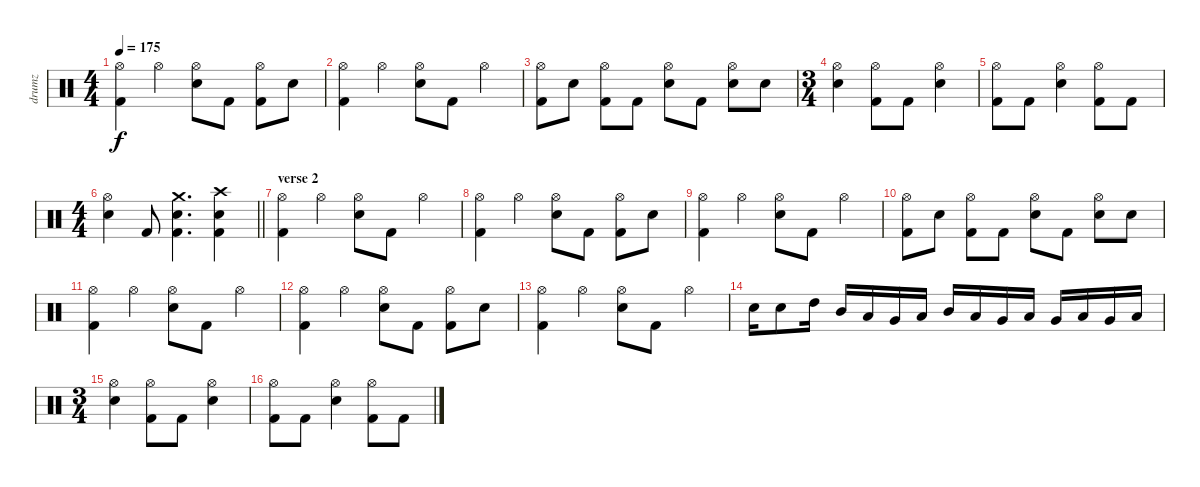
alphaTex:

\track ("drumz" "drumz") {instrument percussion}
\staff {score}
\articulation defaults
\ts (4 4)
\tempo 175
\clef neutral
\ks c
("Hi-Hat (open)" "Kick (hit) 2").4{dy f} "Hi-Hat (open)".4 ("Hi-Hat (open)" "Electric Snare (hit)").8 "Kick (hit) 2".8 ("Hi-Hat (open)" "Kick (hit) 2").8 "Electric Snare (hit)".8 |
("Hi-Hat (open)" "Kick (hit) 2").4 "Hi-Hat (open)".4 ("Hi-Hat (open)" "Electric Snare (hit)").8 "Kick (hit) 2".8 "Hi-Hat (open)".4 |
("Hi-Hat (open)" "Kick (hit) 2").8 "Electric Snare (hit)".8 ("Hi-Hat (open)" "Kick (hit) 2").8 "Kick (hit) 2".8 ("Hi-Hat (open)" "Electric Snare (hit)").8 "Kick (hit) 2".8 ("Hi-Hat (open)" "Electric Snare (hit)").8 "Electric Snare (hit)".8 |
\ts (3 4)
("Hi-Hat (open)" "Electric Snare (hit)").4 ("Hi-Hat (open)" "Kick (hit) 2").8 "Kick (hit) 2".8 ("Hi-Hat (open)" "Electric Snare (hit)").4 |
("Hi-Hat (open)" "Kick (hit) 2").8 "Kick (hit) 2".8 ("Hi-Hat (open)" "Electric Snare (hit)").4 ("Hi-Hat (open)" "Kick (hit) 2").8 "Kick (hit) 2".8 |
\ts (4 4)
\barLineRight lightlight
("Hi-Hat (open)" "Electric Snare (hit)").4 "Kick (hit) 2".8 ("Crash medium (hit)" "Electric Snare (hit)" "Kick (hit) 2").4{d} ("Crash high (hit)" "Electric Snare (hit)" "Kick (hit) 2").4 |
\section ("" "verse 2")
("Hi-Hat (open)" "Kick (hit) 2").4 "Hi-Hat (open)".4 ("Hi-Hat (open)" "Electric Snare (hit)").8 "Kick (hit) 2".8 "Hi-Hat (open)".4 |
("Hi-Hat (open)" "Kick (hit) 2").4 "Hi-Hat (open)".4 ("Hi-Hat (open)" "Electric Snare (hit)").8 "Kick (hit) 2".8 ("Hi-Hat (open)" "Kick (hit) 2").8 "Electric Snare (hit)".8 |
("Hi-Hat (open)" "Kick (hit) 2").4 "Hi-Hat (open)".4 ("Hi-Hat (open)" "Electric Snare (hit)").8 "Kick (hit) 2".8 "Hi-Hat (open)".4 |
("Hi-Hat (open)" "Kick (hit) 2").8 "Electric Snare (hit)".8 ("Hi-Hat (open)" "Kick (hit) 2").8 "Kick (hit) 2".8 ("Hi-Hat (open)" "Electric Snare (hit)").8 "Kick (hit) 2".8 ("Hi-Hat (open)" "Electric Snare (hit)").8 "Electric Snare (hit)".8 |
("Hi-Hat (open)" "Kick (hit) 2").4 "Hi-Hat (open)".4 ("Hi-Hat (open)" "Electric Snare (hit)").8 "Kick (hit) 2".8 "Hi-Hat (open)".4 |
("Hi-Hat (open)" "Kick (hit) 2").4 "Hi-Hat (open)".4 ("Hi-Hat (open)" "Electric Snare (hit)").8 "Kick (hit) 2".8 ("Hi-Hat (open)" "Kick (hit) 2").8 "Electric Snare (hit)".8 |
("Hi-Hat (open)" "Kick (hit) 2").4 "Hi-Hat (open)".4 ("Hi-Hat (open)" "Electric Snare (hit)").8 "Kick (hit) 2".8 "Hi-Hat (open)".4 |
"Electric Snare (hit)".16 "Electric Snare (hit)".8 "High Tom (hit)".16 "Mid Tom (hit)".16 "Low Tom (hit)".16 "Very Low Tom (hit)".16 "Low Floor Tom (hit)".16 "Mid Tom (hit)".16 "Low Tom (hit)".16 "Very Low Tom (hit)".16 "Low Tom (hit)".16 "Very Low Tom (hit)".16 "Low Floor Tom (hit)".16 "Very Low Tom (hit)".16 "Low Floor Tom (hit)".16 |
\ts (3 4)
("Hi-Hat (open)" "Electric Snare (hit)").4 ("Hi-Hat (open)" "Kick (hit) 2").8 "Kick (hit) 2".8 ("Hi-Hat (open)" "Electric Snare (hit)").4 |
("Hi-Hat (open)" "Kick (hit) 2").8 "Kick (hit) 2".8 ("Hi-Hat (open)" "Electric Snare (hit)").4 ("Hi-Hat (open)" "Kick (hit) 2").8 "Kick (hit) 2".8
